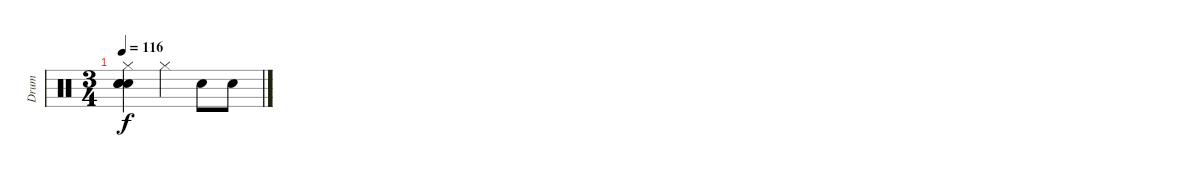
\track ("Drum" "Drum") {instrument percussion}
\staff {score}
\articulation defaults
\ts (3 4)
\tempo 116
\clef neutral
\ks c
("Hi-Hat (closed)" "Electric Snare (hit)" "Electric Snare (hit)" "Electric Snare (hit)").4{dy f} "Hi-Hat (closed)".4 "Electric Snare (hit)".8 "Electric Snare (hit)".8
